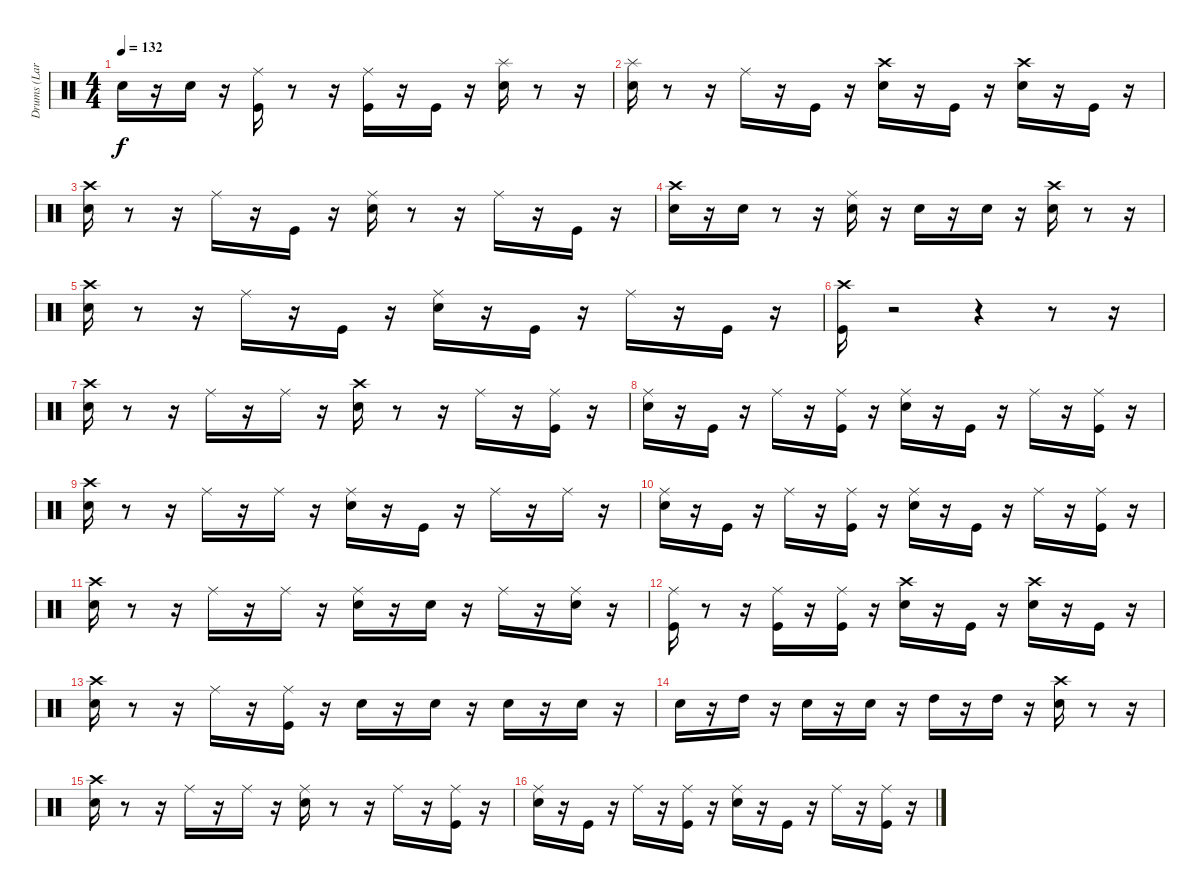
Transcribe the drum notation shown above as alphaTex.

\track ("Drums (Lars)" "Drums (Lar") {instrument percussion}
\staff {score}
\articulation defaults
\ts (4 4)
\tempo 132
\clef neutral
\ks c "Snare (hit) 2".16{dy f}
r.16 "Snare (hit) 2".16 r.16 ("Ride (middle)" "Kick (hit)").16 r.8 r.16 ("Ride (middle)" "Kick (hit)").16 r.16 "Kick (hit)".16 r.16 ("Snare (hit) 2" "Splash (hit)").16 r.8 r.16 |
("Snare (hit) 2" "Splash (hit)").16 r.8 r.16 "Ride (middle)".16 r.16 "Kick (hit)".16 r.16 ("Snare (hit) 2" "Crash high (hit)").16 r.16 "Kick (hit)".16 r.16 ("Snare (hit) 2" "Crash high (hit)").16 r.16 "Kick (hit)".16 r.16 |
("Snare (hit) 2" "Crash high (hit)").16 r.8 r.16 "Ride (middle)".16 r.16 "Kick (hit)".16 r.16 ("Ride (middle)" "Snare (hit) 2").16 r.8 r.16 "Ride (middle)".16 r.16 "Kick (hit)".16 r.16 |
("Snare (hit) 2" "Crash high (hit)").16 r.16 "Snare (hit) 2".16 r.8 r.16 ("Ride (middle)" "Electric Snare (hit)").16 r.16 "Snare (hit) 2".16 r.16 "Electric Snare (hit)".16 r.16 ("Snare (hit) 2" "Crash high (hit)").16 r.8 r.16 |
("Snare (hit) 2" "Crash high (hit)").16 r.8 r.16 "Ride (middle)".16 r.16 "Kick (hit)".16 r.16 ("Ride (middle)" "Snare (hit) 2").16 r.16 "Kick (hit)".16 r.16 "Ride (middle)".16 r.16 "Kick (hit)".16 r.16 |
("Crash high (hit)" "Kick (hit)").16 r.2 r.4 r.8 r.16 |
("Snare (hit) 2" "Crash high (hit)").16 r.8 r.16 "Ride (middle)".16 r.16 "Ride (middle)".16 r.16 ("Snare (hit) 2" "Crash high (hit)").16 r.8 r.16 "Ride (middle)".16 r.16 ("Ride (middle)" "Kick (hit)").16 r.16 |
("Ride (middle)" "Snare (hit) 2").16 r.16 "Kick (hit)".16 r.16 "Ride (middle)".16 r.16 ("Ride (middle)" "Kick (hit)").16 r.16 ("Ride (middle)" "Snare (hit) 2").16 r.16 "Kick (hit)".16 r.16 "Ride (middle)".16 r.16 ("Ride (middle)" "Kick (hit)").16 r.16 |
("Snare (hit) 2" "Crash high (hit)").16 r.8 r.16 "Ride (middle)".16 r.16 "Ride (middle)".16 r.16 ("Ride (middle)" "Snare (hit) 2").16 r.16 "Kick (hit)".16 r.16 "Ride (middle)".16 r.16 "Ride (middle)".16 r.16 |
("Ride (middle)" "Snare (hit) 2").16 r.16 "Kick (hit)".16 r.16 "Ride (middle)".16 r.16 ("Ride (middle)" "Kick (hit)").16 r.16 ("Ride (middle)" "Snare (hit) 2").16 r.16 "Kick (hit)".16 r.16 "Ride (middle)".16 r.16 ("Ride (middle)" "Kick (hit)").16 r.16 |
("Crash high (hit)" "Snare (hit) 2").16 r.8 r.16 "Ride (middle)".16 r.16 "Ride (middle)".16 r.16 ("Ride (middle)" "Snare (hit) 2").16 r.16 "Snare (hit) 2".16 r.16 "Ride (middle)".16 r.16 ("Ride (middle)" "Snare (hit) 2").16 r.16 |
("Ride (middle)" "Kick (hit)").16 r.8 r.16 ("Ride (middle)" "Kick (hit)").16 r.16 ("Ride (middle)" "Kick (hit)").16 r.16 ("Snare (hit) 2" "Crash high (hit)").16 r.16 "Kick (hit)".16 r.16 ("Crash high (hit)" "Snare (hit) 2").16 r.16 "Kick (hit)".16 r.16 |
("Snare (hit) 2" "Crash high (hit)").16 r.8 r.16 "Ride (middle)".16 r.16 ("Ride (middle)" "Kick (hit)").16 r.16 "Snare (hit) 2".16 r.16 "Snare (hit) 2".16 r.16 "Snare (hit) 2".16 r.16 "Snare (hit) 2".16 r.16 |
"Snare (hit) 2".16 r.16 "High Tom (hit)".16 r.16 "Snare (hit) 2".16 r.16 "Snare (hit) 2".16 r.16 "High Tom (hit)".16 r.16 "High Tom (hit)".16 r.16 ("Crash high (hit)" "Snare (hit) 2").16 r.8 r.16 |
("Snare (hit) 2" "Crash high (hit)").16 r.8 r.16 "Ride (middle)".16 r.16 "Ride (middle)".16 r.16 ("Ride (middle)" "Snare (hit) 2").16 r.8 r.16 "Ride (middle)".16 r.16 ("Ride (middle)" "Kick (hit)").16 r.16 |
("Ride (middle)" "Snare (hit) 2").16 r.16 "Kick (hit)".16 r.16 "Ride (middle)".16 r.16 ("Ride (middle)" "Kick (hit)").16 r.16 ("Ride (middle)" "Snare (hit) 2").16 r.16 "Kick (hit)".16 r.16 "Ride (middle)".16 r.16 ("Ride (middle)" "Kick (hit)").16 r.16
